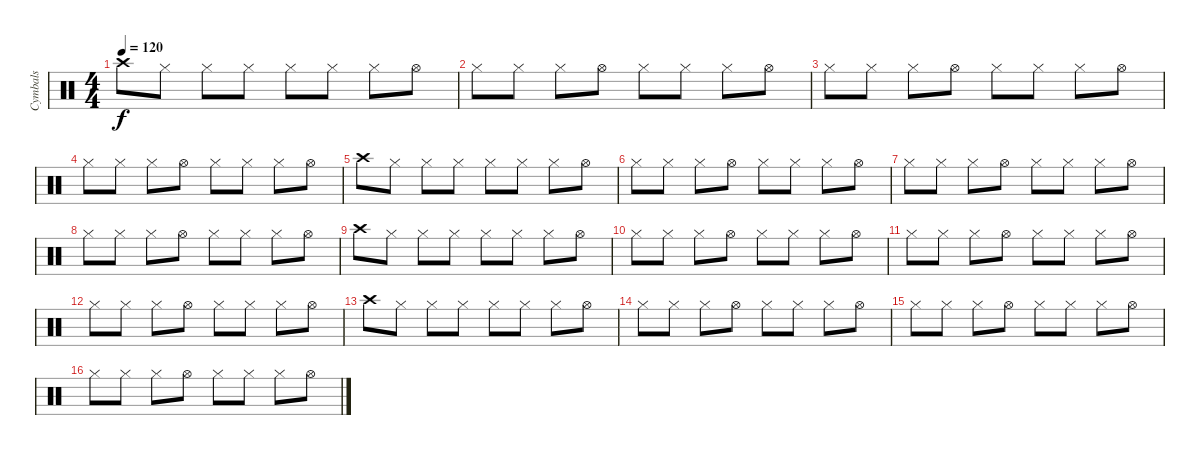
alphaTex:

\track ("Cymbals" "Cymbals") {instrument percussion}
\staff {score}
\articulation defaults
\ts (4 4)
\tempo 120
\clef neutral
\ks c "Crash high (hit)".8{dy f} "Hi-Hat (closed)".8 "Hi-Hat (closed)".8 "Hi-Hat (closed)".8 "Hi-Hat (closed)".8 "Hi-Hat (closed)".8 "Hi-Hat (closed)".8 "Hi-Hat (open)".8
|
"Hi-Hat (closed)".8 "Hi-Hat (closed)".8 "Hi-Hat (closed)".8 "Hi-Hat (open)".8 "Hi-Hat (closed)".8 "Hi-Hat (closed)".8 "Hi-Hat (closed)".8 "Hi-Hat (open)".8 |
"Hi-Hat (closed)".8 "Hi-Hat (closed)".8 "Hi-Hat (closed)".8 "Hi-Hat (open)".8 "Hi-Hat (closed)".8 "Hi-Hat (closed)".8 "Hi-Hat (closed)".8 "Hi-Hat (open)".8 |
"Hi-Hat (closed)".8 "Hi-Hat (closed)".8 "Hi-Hat (closed)".8 "Hi-Hat (open)".8 "Hi-Hat (closed)".8 "Hi-Hat (closed)".8 "Hi-Hat (closed)".8 "Hi-Hat (open)".8 |
"Crash high (hit)".8 "Hi-Hat (closed)".8 "Hi-Hat (closed)".8 "Hi-Hat (closed)".8 "Hi-Hat (closed)".8 "Hi-Hat (closed)".8 "Hi-Hat (closed)".8 "Hi-Hat (open)".8 |
"Hi-Hat (closed)".8 "Hi-Hat (closed)".8 "Hi-Hat (closed)".8 "Hi-Hat (open)".8 "Hi-Hat (closed)".8 "Hi-Hat (closed)".8 "Hi-Hat (closed)".8 "Hi-Hat (open)".8 |
"Hi-Hat (closed)".8 "Hi-Hat (closed)".8 "Hi-Hat (closed)".8 "Hi-Hat (open)".8 "Hi-Hat (closed)".8 "Hi-Hat (closed)".8 "Hi-Hat (closed)".8 "Hi-Hat (open)".8 |
"Hi-Hat (closed)".8 "Hi-Hat (closed)".8 "Hi-Hat (closed)".8 "Hi-Hat (open)".8 "Hi-Hat (closed)".8 "Hi-Hat (closed)".8 "Hi-Hat (closed)".8 "Hi-Hat (open)".8 |
"Crash high (hit)".8 "Hi-Hat (closed)".8 "Hi-Hat (closed)".8 "Hi-Hat (closed)".8 "Hi-Hat (closed)".8 "Hi-Hat (closed)".8 "Hi-Hat (closed)".8 "Hi-Hat (open)".8 |
"Hi-Hat (closed)".8 "Hi-Hat (closed)".8 "Hi-Hat (closed)".8 "Hi-Hat (open)".8 "Hi-Hat (closed)".8 "Hi-Hat (closed)".8 "Hi-Hat (closed)".8 "Hi-Hat (open)".8 |
"Hi-Hat (closed)".8 "Hi-Hat (closed)".8 "Hi-Hat (closed)".8 "Hi-Hat (open)".8 "Hi-Hat (closed)".8 "Hi-Hat (closed)".8 "Hi-Hat (closed)".8 "Hi-Hat (open)".8 |
"Hi-Hat (closed)".8 "Hi-Hat (closed)".8 "Hi-Hat (closed)".8 "Hi-Hat (open)".8 "Hi-Hat (closed)".8 "Hi-Hat (closed)".8 "Hi-Hat (closed)".8 "Hi-Hat (open)".8 |
"Crash high (hit)".8 "Hi-Hat (closed)".8 "Hi-Hat (closed)".8 "Hi-Hat (closed)".8 "Hi-Hat (closed)".8 "Hi-Hat (closed)".8 "Hi-Hat (closed)".8 "Hi-Hat (open)".8 |
"Hi-Hat (closed)".8 "Hi-Hat (closed)".8 "Hi-Hat (closed)".8 "Hi-Hat (open)".8 "Hi-Hat (closed)".8 "Hi-Hat (closed)".8 "Hi-Hat (closed)".8 "Hi-Hat (open)".8 |
"Hi-Hat (closed)".8 "Hi-Hat (closed)".8 "Hi-Hat (closed)".8 "Hi-Hat (open)".8 "Hi-Hat (closed)".8 "Hi-Hat (closed)".8 "Hi-Hat (closed)".8 "Hi-Hat (open)".8 |
"Hi-Hat (closed)".8 "Hi-Hat (closed)".8 "Hi-Hat (closed)".8 "Hi-Hat (open)".8 "Hi-Hat (closed)".8 "Hi-Hat (closed)".8 "Hi-Hat (closed)".8 "Hi-Hat (open)".8
